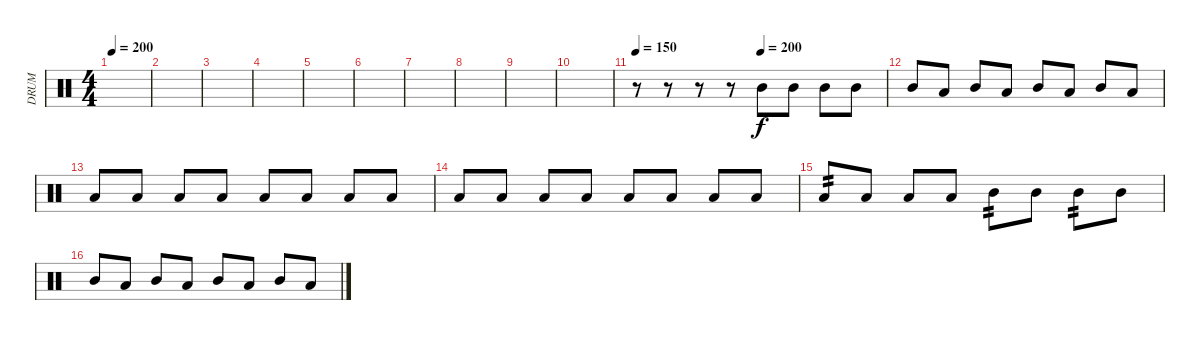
\track ("DRUM" "DRUM") {instrument percussion}
\staff {score}
\articulation defaults
\ts (4 4)
\tempo 200
\clef neutral
\ks c
|
|
|
|
|
|
|
|
|
|
\tempo 150
\tempo (200 0.5)
r.8 r.8 r.8 r.8 "Mid Tom (hit)".8 "Mid Tom (hit)".8 "Mid Tom (hit)".8 "Mid Tom (hit)".8 |
"Mid Tom (hit)".8 "Low Tom (hit)".8 "Mid Tom (hit)".8 "Low Tom (hit)".8 "Mid Tom (hit)".8 "Low Tom (hit)".8 "Mid Tom (hit)".8 "Low Tom (hit)".8 |
"Low Tom (hit)".8 "Low Floor Tom (hit)".8 "Low Tom (hit)".8 "Low Floor Tom (hit)".8 "Low Tom (hit)".8 "Low Floor Tom (hit)".8 "Low Tom (hit)".8 "Low Floor Tom (hit)".8 |
"Low Tom (hit)".8 "Low Tom (hit)".8 "Low Tom (hit)".8 "Low Tom (hit)".8 "Low Tom (hit)".8 "Low Tom (hit)".8 "Low Tom (hit)".8 "Low Tom (hit)".8 |
"Low Tom (hit)".8{tp 2} "Low Tom (hit)".8 "Low Tom (hit)".8 "Low Tom (hit)".8 "Mid Tom (hit)".8{tp 2} "Mid Tom (hit)".8 "Mid Tom (hit)".8{tp 2} "Mid Tom (hit)".8 |
"Mid Tom (hit)".8 "Low Tom (hit)".8 "Mid Tom (hit)".8 "Low Tom (hit)".8 "Mid Tom (hit)".8 "Low Tom (hit)".8 "Mid Tom (hit)".8 "Low Tom (hit)".8
